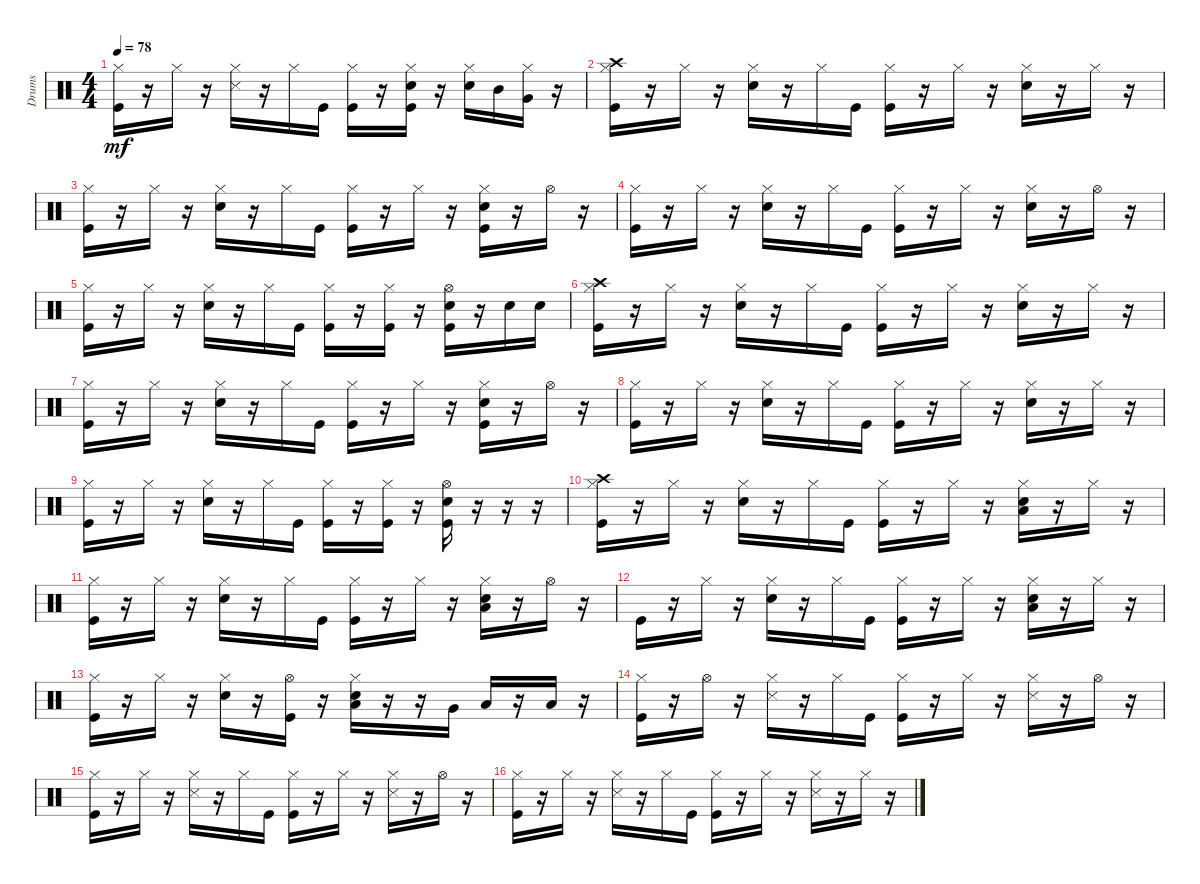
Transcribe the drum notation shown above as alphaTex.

\track ("Drums               " "Drums     ") {instrument percussion}
\staff {score}
\articulation defaults
\ts (4 4)
\tempo 78
\clef neutral
\ks c
("Kick (hit)" "Hi-Hat (closed)").16{dy mf} r.16 "Hi-Hat (closed)".16 r.16 ("Hi-Hat (closed)" "Snare (side stick) 3").16 r.16 "Hi-Hat (closed)".16 "Kick (hit)".16 ("Kick (hit)" "Hi-Hat (closed)").16 r.16 ("Kick (hit)" "Snare (hit) 2" "Hi-Hat (closed)").16 r.16 ("Snare (hit) 2" "Hi-Hat (closed)").16 "Mid Tom (hit)".16 ("Hi-Hat (closed)" "Very Low Tom (hit)").16 r.16 |
("Kick (hit)" "Hi-Hat (closed)" "Crash high (hit)").16 r.16 "Hi-Hat (closed)".16 r.16 ("Snare (hit) 2" "Hi-Hat (closed)").16 r.16 "Hi-Hat (closed)".16 "Kick (hit)".16 ("Kick (hit)" "Hi-Hat (closed)").16 r.16 "Hi-Hat (closed)".16 r.16 ("Snare (hit) 2" "Hi-Hat (closed)").16 r.16 "Hi-Hat (closed)".16 r.16 |
("Kick (hit)" "Hi-Hat (closed)").16 r.16 "Hi-Hat (closed)".16 r.16 ("Snare (hit) 2" "Hi-Hat (closed)").16 r.16 "Hi-Hat (closed)".16 "Kick (hit)".16 ("Kick (hit)" "Hi-Hat (closed)").16 r.16 "Hi-Hat (closed)".16 r.16 ("Kick (hit)" "Snare (hit) 2" "Hi-Hat (closed)").16 r.16 "Hi-Hat (open)".16 r.16 |
("Kick (hit)" "Hi-Hat (closed)").16 r.16 "Hi-Hat (closed)".16 r.16 ("Snare (hit) 2" "Hi-Hat (closed)").16 r.16 "Hi-Hat (closed)".16 "Kick (hit)".16 ("Kick (hit)" "Hi-Hat (closed)").16 r.16 "Hi-Hat (closed)".16 r.16 ("Snare (hit) 2" "Hi-Hat (closed)").16 r.16 "Hi-Hat (open)".16 r.16 |
("Kick (hit)" "Hi-Hat (closed)").16 r.16 "Hi-Hat (closed)".16 r.16 ("Snare (hit) 2" "Hi-Hat (closed)").16 r.16 "Hi-Hat (closed)".16 "Kick (hit)".16 ("Kick (hit)" "Hi-Hat (closed)").16 r.16 ("Kick (hit)" "Hi-Hat (closed)").16 r.16 ("Kick (hit)" "Snare (hit) 2" "Hi-Hat (open)").16 r.16 "Snare (hit) 2".16 "Snare (hit) 2".16 |
("Kick (hit)" "Hi-Hat (closed)" "Crash high (hit)").16 r.16 "Hi-Hat (closed)".16 r.16 ("Snare (hit) 2" "Hi-Hat (closed)").16 r.16 "Hi-Hat (closed)".16 "Kick (hit)".16 ("Kick (hit)" "Hi-Hat (closed)").16 r.16 "Hi-Hat (closed)".16 r.16 ("Snare (hit) 2" "Hi-Hat (closed)").16 r.16 "Hi-Hat (closed)".16 r.16 |
("Kick (hit)" "Hi-Hat (closed)").16 r.16 "Hi-Hat (closed)".16 r.16 ("Snare (hit) 2" "Hi-Hat (closed)").16 r.16 "Hi-Hat (closed)".16 "Kick (hit)".16 ("Kick (hit)" "Hi-Hat (closed)").16 r.16 "Hi-Hat (closed)".16 r.16 ("Kick (hit)" "Snare (hit) 2" "Hi-Hat (closed)").16 r.16 "Hi-Hat (open)".16 r.16 |
("Kick (hit)" "Hi-Hat (closed)").16 r.16 "Hi-Hat (closed)".16 r.16 ("Snare (hit) 2" "Hi-Hat (closed)").16 r.16 "Hi-Hat (closed)".16 "Kick (hit)".16 ("Kick (hit)" "Hi-Hat (closed)").16 r.16 "Hi-Hat (closed)".16 r.16 ("Snare (hit) 2" "Hi-Hat (closed)").16 r.16 "Hi-Hat (closed)".16 r.16 |
("Kick (hit)" "Hi-Hat (closed)").16 r.16 "Hi-Hat (closed)".16 r.16 ("Snare (hit) 2" "Hi-Hat (closed)").16 r.16 "Hi-Hat (closed)".16 "Kick (hit)".16 ("Kick (hit)" "Hi-Hat (closed)").16 r.16 ("Kick (hit)" "Hi-Hat (closed)").16 r.16 ("Kick (hit)" "Snare (hit) 2" "Hi-Hat (open)").16 r.16 r.16 r.16 |
("Kick (hit)" "Hi-Hat (closed)" "Crash high (hit)").16 r.16 "Hi-Hat (closed)".16 r.16 ("Snare (hit) 2" "Hi-Hat (closed)").16 r.16 "Hi-Hat (closed)".16 "Kick (hit)".16 ("Kick (hit)" "Hi-Hat (closed)").16 r.16 "Hi-Hat (closed)".16 r.16 ("Snare (hit) 2" "Hi-Hat (closed)" "Low Floor Tom (hit)").16 r.16 "Hi-Hat (closed)".16 r.16 |
("Kick (hit)" "Hi-Hat (closed)").16 r.16 "Hi-Hat (closed)".16 r.16 ("Snare (hit) 2" "Hi-Hat (closed)").16 r.16 "Hi-Hat (closed)".16 "Kick (hit)".16 ("Kick (hit)" "Hi-Hat (closed)").16 r.16 "Hi-Hat (closed)".16 r.16 ("Snare (hit) 2" "Hi-Hat (closed)" "Low Floor Tom (hit)").16 r.16 "Hi-Hat (open)".16 r.16 |
"Kick (hit)".16 r.16 "Hi-Hat (closed)".16 r.16 ("Snare (hit) 2" "Hi-Hat (closed)").16 r.16 "Hi-Hat (closed)".16 "Kick (hit)".16 ("Kick (hit)" "Hi-Hat (closed)").16 r.16 "Hi-Hat (closed)".16 r.16 ("Snare (hit) 2" "Hi-Hat (closed)" "Low Floor Tom (hit)").16 r.16 "Hi-Hat (closed)".16 r.16 |
("Kick (hit)" "Hi-Hat (closed)").16 r.16 "Hi-Hat (closed)".16 r.16 ("Snare (hit) 2" "Hi-Hat (closed)").16 r.16 ("Kick (hit)" "Hi-Hat (open)").16 r.16 ("Snare (hit) 2" "Hi-Hat (closed)" "Low Floor Tom (hit)").16 r.16 r.16 "Very Low Tom (hit)".16 "Low Floor Tom (hit)".16 r.16 "Low Floor Tom (hit)".16 r.16 |
("Kick (hit)" "Hi-Hat (closed)").16 r.16 "Hi-Hat (open)".16 r.16 ("Hi-Hat (closed)" "Snare (side stick) 3").16 r.16 "Hi-Hat (closed)".16 "Kick (hit)".16 ("Kick (hit)" "Hi-Hat (closed)").16 r.16 "Hi-Hat (closed)".16 r.16 ("Hi-Hat (closed)" "Snare (side stick) 3").16 r.16 "Hi-Hat (open)".16 r.16 |
("Kick (hit)" "Hi-Hat (closed)").16 r.16 "Hi-Hat (closed)".16 r.16 ("Hi-Hat (closed)" "Snare (side stick) 3").16 r.16 "Hi-Hat (closed)".16 "Kick (hit)".16 ("Kick (hit)" "Hi-Hat (closed)").16 r.16 "Hi-Hat (closed)".16 r.16 ("Hi-Hat (closed)" "Snare (side stick) 3").16 r.16 "Hi-Hat (open)".16 r.16 |
("Kick (hit)" "Hi-Hat (closed)").16 r.16 "Hi-Hat (closed)".16 r.16 ("Hi-Hat (closed)" "Snare (side stick) 3").16 r.16 "Hi-Hat (closed)".16 "Kick (hit)".16 ("Kick (hit)" "Hi-Hat (closed)").16 r.16 "Hi-Hat (closed)".16 r.16 ("Hi-Hat (closed)" "Snare (side stick) 3").16 r.16 "Hi-Hat (closed)".16 r.16
